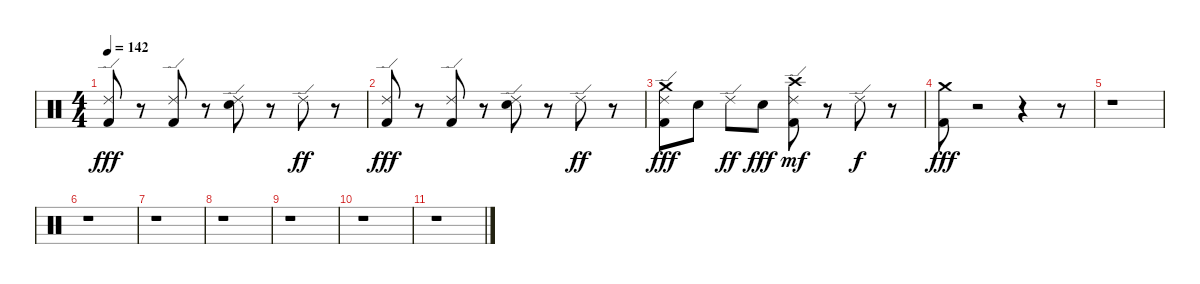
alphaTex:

\track "" {instrument percussion}
\staff {score}
\articulation defaults
\ts (4 4)
\tempo 142
\clef neutral
\ks c
("Ride (edge) 2" "Kick (hit) 2").8{dy fff} r.8 ("Ride (edge) 2" "Kick (hit) 2").8 r.8 ("Ride (edge) 2" "Electric Snare (hit)").8 r.8 "Ride (edge) 2".8{dy ff} r.8 |
("Ride (edge) 2" "Kick (hit) 2").8{dy fff} r.8 ("Ride (edge) 2" "Kick (hit) 2").8 r.8 ("Ride (edge) 2" "Electric Snare (hit)").8 r.8 "Ride (edge) 2".8{dy ff} r.8 |
("Crash medium (hit)" "Ride (edge) 2" "Kick (hit) 2").8{dy fff} "Electric Snare (hit)".8 "Ride (edge) 2".8{dy ff} "Electric Snare (hit)".8{dy fff} ("Ride (edge) 2" "Kick (hit) 2" "Crash high (hit)").8{dy mf} r.8 "Ride (edge) 2".8{dy f} r.8 |
("Crash medium (hit)" "Kick (hit) 2").8{dy fff} r.2 r.4 r.8 |
r.1 |
r.1 |
r.1 |
r.1 |
r.1 |
r.1 |
r.1
